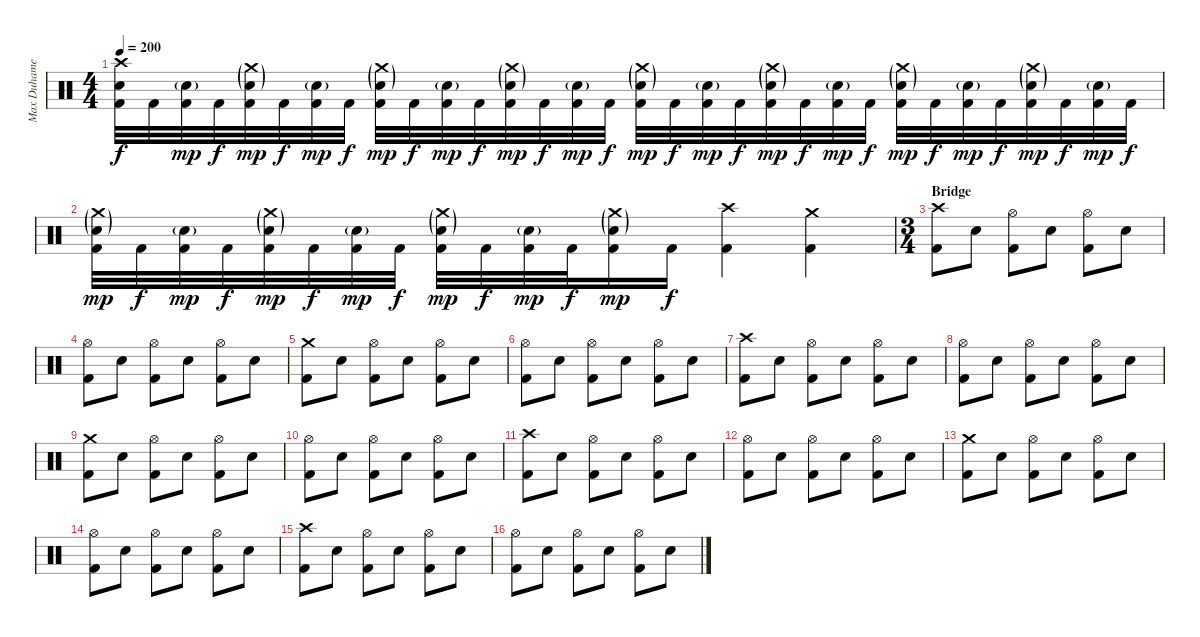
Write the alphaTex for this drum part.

\track ("Max Duhamel" "Max Duhame") {instrument percussion}
\staff {score}
\articulation defaults
\ts (4 4)
\tempo 200
\clef neutral
\ks c
("Crash high (hit)" "Electric Snare (hit)" "Kick (hit) 2").32{dy f} "Kick (hit) 2".32 ("Electric Snare (hit)"{g} "Kick (hit) 2").32{dy mp} "Kick (hit) 2".32{dy f} ("Crash medium (hit)"{g} "Electric Snare (hit)"{g} "Kick (hit) 2").32{dy mp} "Kick (hit) 2".32{dy f} ("Electric Snare (hit)"{g} "Kick (hit) 2").32{dy mp} "Kick (hit) 2".32{dy f} ("Crash medium (hit)"{g} "Electric Snare (hit)"{g} "Kick (hit) 2").32{dy mp} "Kick (hit) 2".32{dy f} ("Electric Snare (hit)"{g} "Kick (hit) 2").32{dy mp} "Kick (hit) 2".32{dy f} ("Crash medium (hit)"{g} "Electric Snare (hit)"{g} "Kick (hit) 2").32{dy mp} "Kick (hit) 2".32{dy f} ("Electric Snare (hit)"{g} "Kick (hit) 2").32{dy mp} "Kick (hit) 2".32{dy f} ("Crash medium (hit)"{g} "Electric Snare (hit)"{g} "Kick (hit) 2").32{dy mp} "Kick (hit) 2".32{dy f} ("Electric Snare (hit)"{g} "Kick (hit) 2").32{dy mp} "Kick (hit) 2".32{dy f} ("Crash medium (hit)"{g} "Electric Snare (hit)"{g} "Kick (hit) 2").32{dy mp} "Kick (hit) 2".32{dy f} ("Electric Snare (hit)"{g} "Kick (hit) 2").32{dy mp} "Kick (hit) 2".32{dy f} ("Crash medium (hit)"{g} "Electric Snare (hit)"{g} "Kick (hit) 2").32{dy mp} "Kick (hit) 2".32{dy f} ("Electric Snare (hit)"{g} "Kick (hit) 2").32{dy mp} "Kick (hit) 2".32{dy f} ("Crash medium (hit)"{g} "Electric Snare (hit)"{g} "Kick (hit) 2").32{dy mp} "Kick (hit) 2".32{dy f} ("Electric Snare (hit)"{g} "Kick (hit) 2").32{dy mp} "Kick (hit) 2".32{dy f} |
("Crash medium (hit)"{g} "Electric Snare (hit)"{g} "Kick (hit) 2").32{dy mp} "Kick (hit) 2".32{dy f} ("Electric Snare (hit)"{g} "Kick (hit) 2").32{dy mp} "Kick (hit) 2".32{dy f} ("Crash medium (hit)"{g} "Electric Snare (hit)"{g} "Kick (hit) 2").32{dy mp} "Kick (hit) 2".32{dy f} ("Electric Snare (hit)"{g} "Kick (hit) 2").32{dy mp} "Kick (hit) 2".32{dy f} ("Crash medium (hit)"{g} "Electric Snare (hit)"{g} "Kick (hit) 2").32{dy mp} "Kick (hit) 2".32{dy f} ("Electric Snare (hit)"{g} "Kick (hit) 2").32{dy mp} "Kick (hit) 2".32{dy f} ("Crash medium (hit)"{g} "Electric Snare (hit)"{g} "Kick (hit) 2").16{dy mp} "Kick (hit) 2".16{dy f} ("Crash high (hit)" "Kick (hit) 2").4 ("Crash medium (hit)" "Kick (hit) 2").4 |
\ts (3 4)
\section ("" "Bridge")
("Crash high (hit)" "Kick (hit) 2").8 "Electric Snare (hit)".8 ("Hi-Hat (open)" "Kick (hit) 2").8 "Electric Snare (hit)".8 ("Hi-Hat (open)" "Kick (hit) 2").8 "Electric Snare (hit)".8 |
("Hi-Hat (open)" "Kick (hit) 2").8 "Electric Snare (hit)".8 ("Hi-Hat (open)" "Kick (hit) 2").8 "Electric Snare (hit)".8 ("Hi-Hat (open)" "Kick (hit) 2").8 "Electric Snare (hit)".8 |
("Crash medium (hit)" "Kick (hit) 2").8 "Electric Snare (hit)".8 ("Hi-Hat (open)" "Kick (hit) 2").8 "Electric Snare (hit)".8 ("Hi-Hat (open)" "Kick (hit) 2").8 "Electric Snare (hit)".8 |
("Hi-Hat (open)" "Kick (hit) 2").8 "Electric Snare (hit)".8 ("Hi-Hat (open)" "Kick (hit) 2").8 "Electric Snare (hit)".8 ("Hi-Hat (open)" "Kick (hit) 2").8 "Electric Snare (hit)".8 |
("Crash high (hit)" "Kick (hit) 2").8 "Electric Snare (hit)".8 ("Hi-Hat (open)" "Kick (hit) 2").8 "Electric Snare (hit)".8 ("Hi-Hat (open)" "Kick (hit) 2").8 "Electric Snare (hit)".8 |
("Hi-Hat (open)" "Kick (hit) 2").8 "Electric Snare (hit)".8 ("Hi-Hat (open)" "Kick (hit) 2").8 "Electric Snare (hit)".8 ("Hi-Hat (open)" "Kick (hit) 2").8 "Electric Snare (hit)".8 |
("Crash medium (hit)" "Kick (hit) 2").8 "Electric Snare (hit)".8 ("Hi-Hat (open)" "Kick (hit) 2").8 "Electric Snare (hit)".8 ("Hi-Hat (open)" "Kick (hit) 2").8 "Electric Snare (hit)".8 |
("Hi-Hat (open)" "Kick (hit) 2").8 "Electric Snare (hit)".8 ("Hi-Hat (open)" "Kick (hit) 2").8 "Electric Snare (hit)".8 ("Hi-Hat (open)" "Kick (hit) 2").8 "Electric Snare (hit)".8 |
\section ("" "")
("Crash high (hit)" "Kick (hit) 2").8 "Electric Snare (hit)".8 ("Hi-Hat (open)" "Kick (hit) 2").8 "Electric Snare (hit)".8 ("Hi-Hat (open)" "Kick (hit) 2").8 "Electric Snare (hit)".8 |
("Hi-Hat (open)" "Kick (hit) 2").8 "Electric Snare (hit)".8 ("Hi-Hat (open)" "Kick (hit) 2").8 "Electric Snare (hit)".8 ("Hi-Hat (open)" "Kick (hit) 2").8 "Electric Snare (hit)".8 |
("Crash medium (hit)" "Kick (hit) 2").8 "Electric Snare (hit)".8 ("Hi-Hat (open)" "Kick (hit) 2").8 "Electric Snare (hit)".8 ("Hi-Hat (open)" "Kick (hit) 2").8 "Electric Snare (hit)".8 |
("Hi-Hat (open)" "Kick (hit) 2").8 "Electric Snare (hit)".8 ("Hi-Hat (open)" "Kick (hit) 2").8 "Electric Snare (hit)".8 ("Hi-Hat (open)" "Kick (hit) 2").8 "Electric Snare (hit)".8 |
("Crash high (hit)" "Kick (hit) 2").8 "Electric Snare (hit)".8 ("Hi-Hat (open)" "Kick (hit) 2").8 "Electric Snare (hit)".8 ("Hi-Hat (open)" "Kick (hit) 2").8 "Electric Snare (hit)".8 |
("Hi-Hat (open)" "Kick (hit) 2").8 "Electric Snare (hit)".8 ("Hi-Hat (open)" "Kick (hit) 2").8 "Electric Snare (hit)".8 ("Hi-Hat (open)" "Kick (hit) 2").8 "Electric Snare (hit)".8
